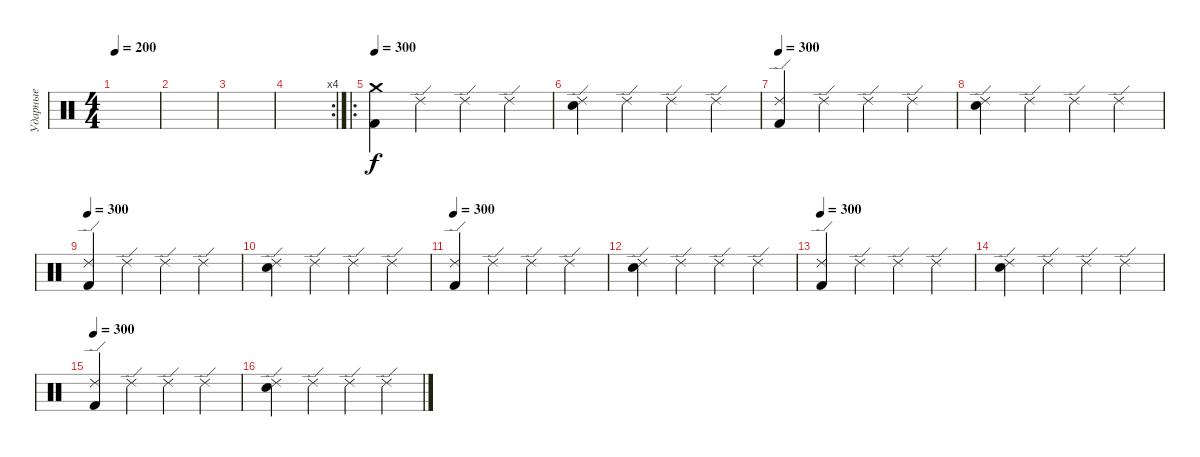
\track ("Ударные" "Ударные") {instrument percussion}
\staff {score}
\articulation defaults
\ts (4 4)
\tempo 200
\clef neutral
\ks c
|
|
|
\rc 4
|
\ro
\tempo 300
("Crash medium (hit)" "Kick (hit) 2").4 "Ride (edge) 2".4 "Ride (edge) 2".4 "Ride (edge) 2".4 |
("Ride (edge) 2" "Snare (hit) 2").4 "Ride (edge) 2".4 "Ride (edge) 2".4 "Ride (edge) 2".4 |
\tempo 300
("Ride (edge) 2" "Kick (hit) 2").4 "Ride (edge) 2".4 "Ride (edge) 2".4 "Ride (edge) 2".4 |
("Ride (edge) 2" "Snare (hit) 2").4 "Ride (edge) 2".4 "Ride (edge) 2".4 "Ride (edge) 2".4 |
\tempo 300
("Ride (edge) 2" "Kick (hit) 2").4 "Ride (edge) 2".4 "Ride (edge) 2".4 "Ride (edge) 2".4 |
("Ride (edge) 2" "Snare (hit) 2").4 "Ride (edge) 2".4 "Ride (edge) 2".4 "Ride (edge) 2".4 |
\tempo 300
("Ride (edge) 2" "Kick (hit) 2").4 "Ride (edge) 2".4 "Ride (edge) 2".4 "Ride (edge) 2".4 |
("Ride (edge) 2" "Snare (hit) 2").4 "Ride (edge) 2".4 "Ride (edge) 2".4 "Ride (edge) 2".4 |
\tempo 300
("Ride (edge) 2" "Kick (hit) 2").4 "Ride (edge) 2".4 "Ride (edge) 2".4 "Ride (edge) 2".4 |
("Ride (edge) 2" "Snare (hit) 2").4 "Ride (edge) 2".4 "Ride (edge) 2".4 "Ride (edge) 2".4 |
\tempo 300
("Ride (edge) 2" "Kick (hit) 2").4 "Ride (edge) 2".4 "Ride (edge) 2".4 "Ride (edge) 2".4 |
("Ride (edge) 2" "Snare (hit) 2").4 "Ride (edge) 2".4 "Ride (edge) 2".4 "Ride (edge) 2".4
